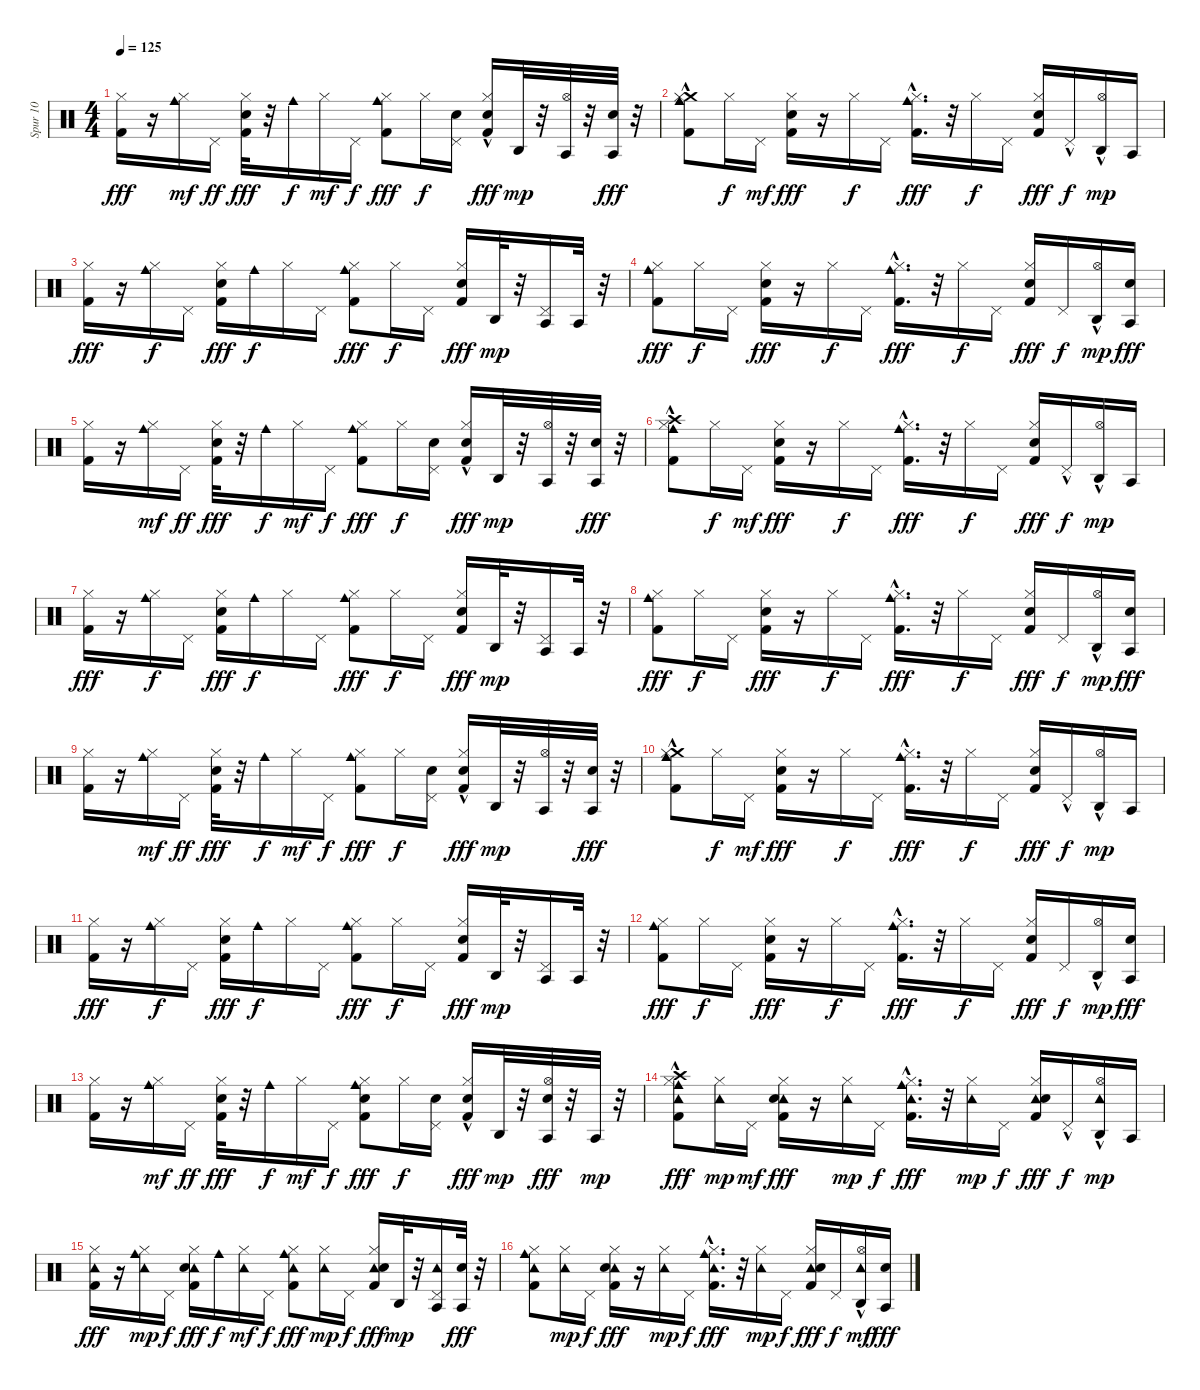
\track ("Spur 10" "Spur 10") {instrument percussion}
\staff {score}
\articulation defaults
\ts (4 4)
\tempo 125
\clef neutral
\ks c
("Kick (hit) 2" "Hi-Hat (closed)").16{dy fff} r.16 ("Cowbell medium (hit)" "Hi-Hat (closed)").16{dy mf} "Pedal Hi-Hat (hit)".16{dy ff} ("Electric Snare (hit)" "Kick (hit) 2" "Hi-Hat (closed)").32{dy fff} r.32 "Cowbell medium (hit)".16{dy f} "Hi-Hat (closed)".16{dy mf} "Pedal Hi-Hat (hit)".16{dy f} ("Cowbell medium (hit)" "Hi-Hat (closed)" "Kick (hit) 2").8{dy fff} "Hi-Hat (closed)".16{dy f} ("Pedal Hi-Hat (hit)" "Electric Snare (hit)").16 ("Hi-Hat (closed)" "Kick (hit) 2"{hac} "Electric Snare (hit)").16{dy fff} "Agogo high (hit)".32{dy mp} r.32 ("Agogo tow (hit)" "Hi-Hat (open)").32 r.32 ("Agogo tow (hit)" "Electric Snare (hit)").32{dy fff} r.32 |
("Cowbell medium (hit)" "Crash medium (hit)"{hac} "Hi-Hat (closed)" "Kick (hit) 2").8 "Hi-Hat (closed)".16{dy f} "Pedal Hi-Hat (hit)".16{dy mf} ("Electric Snare (hit)" "Kick (hit) 2" "Hi-Hat (closed)").16{dy fff} r.16 "Hi-Hat (closed)".16{dy f} "Pedal Hi-Hat (hit)".16 ("Cowbell medium (hit)"{hac} "Kick (hit) 2" "Hi-Hat (closed)").16{d dy fff} r.32 "Hi-Hat (closed)".16{dy f} "Pedal Hi-Hat (hit)".16 ("Kick (hit) 2" "Electric Snare (hit)" "Hi-Hat (closed)").16{dy fff} "Pedal Hi-Hat (hit)"{hac}.16{dy f} ("Agogo high (hit)" "Hi-Hat (open)"{hac}).16{dy mp} "Agogo tow (hit)".16 |
("Kick (hit) 2" "Hi-Hat (closed)").16{dy fff} r.16 ("Cowbell medium (hit)" "Hi-Hat (closed)").16{dy f} "Pedal Hi-Hat (hit)".16 ("Hi-Hat (closed)" "Kick (hit) 2" "Electric Snare (hit)").16{dy fff} "Cowbell medium (hit)".16{dy f} "Hi-Hat (closed)".16 "Pedal Hi-Hat (hit)".16 ("Cowbell medium (hit)" "Kick (hit) 2" "Hi-Hat (closed)").8{dy fff} "Hi-Hat (closed)".16{dy f} "Pedal Hi-Hat (hit)".16 ("Electric Snare (hit)" "Kick (hit) 2" "Hi-Hat (closed)").16{dy fff} "Agogo high (hit)".32{dy mp} r.32 ("Agogo tow (hit)" "Pedal Hi-Hat (hit)").16 "Agogo tow (hit)".32 r.32 |
("Cowbell medium (hit)" "Kick (hit) 2" "Hi-Hat (closed)").8{dy fff} "Hi-Hat (closed)".16{dy f} "Pedal Hi-Hat (hit)".16 ("Electric Snare (hit)" "Kick (hit) 2" "Hi-Hat (closed)").16{dy fff} r.16 "Hi-Hat (closed)".16{dy f} "Pedal Hi-Hat (hit)".16 ("Cowbell medium (hit)"{hac} "Hi-Hat (closed)" "Kick (hit) 2").16{d dy fff} r.32 "Hi-Hat (closed)".16{dy f} "Pedal Hi-Hat (hit)".16 ("Kick (hit) 2" "Electric Snare (hit)" "Hi-Hat (closed)").16{dy fff} "Pedal Hi-Hat (hit)".16{dy f} ("Agogo high (hit)" "Hi-Hat (open)"{hac}).16{dy mp} ("Agogo tow (hit)" "Electric Snare (hit)").16{dy fff} |
("Kick (hit) 2" "Hi-Hat (closed)").16 r.16 ("Cowbell medium (hit)" "Hi-Hat (closed)").16{dy mf} "Pedal Hi-Hat (hit)".16{dy ff} ("Electric Snare (hit)" "Kick (hit) 2" "Hi-Hat (closed)").32{dy fff} r.32 "Cowbell medium (hit)".16{dy f} "Hi-Hat (closed)".16{dy mf} "Pedal Hi-Hat (hit)".16{dy f} ("Cowbell medium (hit)" "Hi-Hat (closed)" "Kick (hit) 2").8{dy fff} "Hi-Hat (closed)".16{dy f} ("Pedal Hi-Hat (hit)" "Electric Snare (hit)").16 ("Hi-Hat (closed)" "Kick (hit) 2"{hac} "Electric Snare (hit)").16{dy fff} "Agogo high (hit)".32{dy mp} r.32 ("Agogo tow (hit)" "Hi-Hat (open)").32 r.32 ("Agogo tow (hit)" "Electric Snare (hit)").32{dy fff} r.32 |
("Cowbell medium (hit)" "Crash high (hit)"{hac} "Hi-Hat (closed)" "Kick (hit) 2").8 "Hi-Hat (closed)".16{dy f} "Pedal Hi-Hat (hit)".16{dy mf} ("Electric Snare (hit)" "Kick (hit) 2" "Hi-Hat (closed)").16{dy fff} r.16 "Hi-Hat (closed)".16{dy f} "Pedal Hi-Hat (hit)".16 ("Cowbell medium (hit)"{hac} "Kick (hit) 2" "Hi-Hat (closed)").16{d dy fff} r.32 "Hi-Hat (closed)".16{dy f} "Pedal Hi-Hat (hit)".16 ("Kick (hit) 2" "Electric Snare (hit)" "Hi-Hat (closed)").16{dy fff} "Pedal Hi-Hat (hit)"{hac}.16{dy f} ("Agogo high (hit)" "Hi-Hat (open)"{hac}).16{dy mp} "Agogo tow (hit)".16 |
("Kick (hit) 2" "Hi-Hat (closed)").16{dy fff} r.16 ("Cowbell medium (hit)" "Hi-Hat (closed)").16{dy f} "Pedal Hi-Hat (hit)".16 ("Hi-Hat (closed)" "Kick (hit) 2" "Electric Snare (hit)").16{dy fff} "Cowbell medium (hit)".16{dy f} "Hi-Hat (closed)".16 "Pedal Hi-Hat (hit)".16 ("Cowbell medium (hit)" "Kick (hit) 2" "Hi-Hat (closed)").8{dy fff} "Hi-Hat (closed)".16{dy f} "Pedal Hi-Hat (hit)".16 ("Electric Snare (hit)" "Kick (hit) 2" "Hi-Hat (closed)").16{dy fff} "Agogo high (hit)".32{dy mp} r.32 ("Agogo tow (hit)" "Pedal Hi-Hat (hit)").16 "Agogo tow (hit)".32 r.32 |
("Cowbell medium (hit)" "Kick (hit) 2" "Hi-Hat (closed)").8{dy fff} "Hi-Hat (closed)".16{dy f} "Pedal Hi-Hat (hit)".16 ("Electric Snare (hit)" "Kick (hit) 2" "Hi-Hat (closed)").16{dy fff} r.16 "Hi-Hat (closed)".16{dy f} "Pedal Hi-Hat (hit)".16 ("Cowbell medium (hit)"{hac} "Hi-Hat (closed)" "Kick (hit) 2").16{d dy fff} r.32 "Hi-Hat (closed)".16{dy f} "Pedal Hi-Hat (hit)".16 ("Kick (hit) 2" "Electric Snare (hit)" "Hi-Hat (closed)").16{dy fff} "Pedal Hi-Hat (hit)".16{dy f} ("Agogo high (hit)" "Hi-Hat (open)"{hac}).16{dy mp} ("Agogo tow (hit)" "Electric Snare (hit)").16{dy fff} |
("Kick (hit) 2" "Hi-Hat (closed)").16 r.16 ("Cowbell medium (hit)" "Hi-Hat (closed)").16{dy mf} "Pedal Hi-Hat (hit)".16{dy ff} ("Electric Snare (hit)" "Kick (hit) 2" "Hi-Hat (closed)").32{dy fff} r.32 "Cowbell medium (hit)".16{dy f} "Hi-Hat (closed)".16{dy mf} "Pedal Hi-Hat (hit)".16{dy f} ("Cowbell medium (hit)" "Hi-Hat (closed)" "Kick (hit) 2").8{dy fff} "Hi-Hat (closed)".16{dy f} ("Pedal Hi-Hat (hit)" "Electric Snare (hit)").16 ("Hi-Hat (closed)" "Kick (hit) 2"{hac} "Electric Snare (hit)").16{dy fff} "Agogo high (hit)".32{dy mp} r.32 ("Agogo tow (hit)" "Hi-Hat (open)").32 r.32 ("Agogo tow (hit)" "Electric Snare (hit)").32{dy fff} r.32 |
("Cowbell medium (hit)" "Crash medium (hit)"{hac} "Hi-Hat (closed)" "Kick (hit) 2").8 "Hi-Hat (closed)".16{dy f} "Pedal Hi-Hat (hit)".16{dy mf} ("Electric Snare (hit)" "Kick (hit) 2" "Hi-Hat (closed)").16{dy fff} r.16 "Hi-Hat (closed)".16{dy f} "Pedal Hi-Hat (hit)".16 ("Cowbell medium (hit)"{hac} "Kick (hit) 2" "Hi-Hat (closed)").16{d dy fff} r.32 "Hi-Hat (closed)".16{dy f} "Pedal Hi-Hat (hit)".16 ("Kick (hit) 2" "Electric Snare (hit)" "Hi-Hat (closed)").16{dy fff} "Pedal Hi-Hat (hit)"{hac}.16{dy f} ("Agogo high (hit)" "Hi-Hat (open)"{hac}).16{dy mp} "Agogo tow (hit)".16 |
("Kick (hit) 2" "Hi-Hat (closed)").16{dy fff} r.16 ("Cowbell medium (hit)" "Hi-Hat (closed)").16{dy f} "Pedal Hi-Hat (hit)".16 ("Hi-Hat (closed)" "Kick (hit) 2" "Electric Snare (hit)").16{dy fff} "Cowbell medium (hit)".16{dy f} "Hi-Hat (closed)".16 "Pedal Hi-Hat (hit)".16 ("Cowbell medium (hit)" "Kick (hit) 2" "Hi-Hat (closed)").8{dy fff} "Hi-Hat (closed)".16{dy f} "Pedal Hi-Hat (hit)".16 ("Electric Snare (hit)" "Kick (hit) 2" "Hi-Hat (closed)").16{dy fff} "Agogo high (hit)".32{dy mp} r.32 ("Agogo tow (hit)" "Pedal Hi-Hat (hit)").16 "Agogo tow (hit)".32 r.32 |
("Cowbell medium (hit)" "Kick (hit) 2" "Hi-Hat (closed)").8{dy fff} "Hi-Hat (closed)".16{dy f} "Pedal Hi-Hat (hit)".16 ("Electric Snare (hit)" "Kick (hit) 2" "Hi-Hat (closed)").16{dy fff} r.16 "Hi-Hat (closed)".16{dy f} "Pedal Hi-Hat (hit)".16 ("Cowbell medium (hit)"{hac} "Hi-Hat (closed)" "Kick (hit) 2").16{d dy fff} r.32 "Hi-Hat (closed)".16{dy f} "Pedal Hi-Hat (hit)".16 ("Kick (hit) 2" "Electric Snare (hit)" "Hi-Hat (closed)").16{dy fff} "Pedal Hi-Hat (hit)".16{dy f} ("Agogo high (hit)" "Hi-Hat (open)"{hac}).16{dy mp} ("Agogo tow (hit)" "Electric Snare (hit)").16{dy fff} |
("Kick (hit) 2" "Hi-Hat (closed)").16 r.16 ("Cowbell medium (hit)" "Hi-Hat (closed)").16{dy mf} "Pedal Hi-Hat (hit)".16{dy ff} ("Electric Snare (hit)" "Kick (hit) 2" "Hi-Hat (closed)").32{dy fff} r.32 "Cowbell medium (hit)".16{dy f} "Hi-Hat (closed)".16{dy mf} "Pedal Hi-Hat (hit)".16{dy f} ("Cowbell medium (hit)" "Electric Snare (hit)" "Hi-Hat (closed)" "Kick (hit) 2").8{dy fff} "Hi-Hat (closed)".16{dy f} ("Pedal Hi-Hat (hit)" "Electric Snare (hit)").16 ("Hi-Hat (closed)" "Kick (hit) 2"{hac} "Electric Snare (hit)").16{dy fff} "Agogo high (hit)".32{dy mp} r.32 ("Agogo tow (hit)" "Electric Snare (hit)" "Hi-Hat (open)").32{dy fff} r.32 "Agogo tow (hit)".32{dy mp} r.32 |
("Tambourine (hit)" "Cowbell medium (hit)" "Crash high (hit)"{hac} "Hi-Hat (closed)" "Kick (hit) 2").8{dy fff} ("Tambourine (hit)" "Hi-Hat (closed)").16{dy mp} "Pedal Hi-Hat (hit)".16{dy mf} ("Tambourine (hit)" "Electric Snare (hit)" "Kick (hit) 2" "Hi-Hat (closed)").16{dy fff} r.16 ("Tambourine (hit)" "Hi-Hat (closed)").16{dy mp} "Pedal Hi-Hat (hit)".16{dy f} ("Tambourine (hit)" "Cowbell medium (hit)"{hac} "Kick (hit) 2" "Hi-Hat (closed)").16{d dy fff} r.32 ("Tambourine (hit)" "Hi-Hat (closed)").16{dy mp} "Pedal Hi-Hat (hit)".16{dy f} ("Tambourine (hit)" "Kick (hit) 2" "Electric Snare (hit)" "Hi-Hat (closed)").16{dy fff} "Pedal Hi-Hat (hit)"{hac}.16{dy f} ("Agogo high (hit)" "Tambourine (hit)" "Hi-Hat (open)"{hac}).16{dy mp} "Agogo tow (hit)".16 |
("Tambourine (hit)" "Kick (hit) 2" "Hi-Hat (closed)").16{dy fff} r.16 ("Cowbell medium (hit)" "Tambourine (hit)" "Hi-Hat (closed)").16{dy mp} "Pedal Hi-Hat (hit)".16{dy f} ("Tambourine (hit)" "Hi-Hat (closed)" "Kick (hit) 2" "Electric Snare (hit)").16{dy fff} "Cowbell medium (hit)".16{dy f} ("Tambourine (hit)" "Hi-Hat (closed)").16{dy mf} "Pedal Hi-Hat (hit)".16{dy f} ("Cowbell medium (hit)" "Tambourine (hit)" "Kick (hit) 2" "Hi-Hat (closed)").8{dy fff} ("Tambourine (hit)" "Hi-Hat (closed)").16{dy mp} "Pedal Hi-Hat (hit)".16{dy f} ("Tambourine (hit)" "Electric Snare (hit)" "Kick (hit) 2" "Hi-Hat (closed)").16{dy fff} "Agogo high (hit)".32{dy mp} r.32 ("Agogo tow (hit)" "Tambourine (hit)" "Pedal Hi-Hat (hit)").16 ("Agogo tow (hit)" "Electric Snare (hit)").32{dy fff} r.32 |
("Cowbell medium (hit)" "Tambourine (hit)" "Kick (hit) 2" "Hi-Hat (closed)").8 ("Tambourine (hit)" "Hi-Hat (closed)").16{dy mp} "Pedal Hi-Hat (hit)".16{dy f} ("Tambourine (hit)" "Electric Snare (hit)" "Kick (hit) 2" "Hi-Hat (closed)").16{dy fff} r.16 ("Tambourine (hit)" "Hi-Hat (closed)").16{dy mp} "Pedal Hi-Hat (hit)".16{dy f} ("Cowbell medium (hit)"{hac} "Tambourine (hit)" "Hi-Hat (closed)" "Kick (hit) 2").16{d dy fff} r.32 ("Tambourine (hit)" "Hi-Hat (closed)").16{dy mp} "Pedal Hi-Hat (hit)".16{dy f} ("Tambourine (hit)" "Kick (hit) 2" "Electric Snare (hit)" "Hi-Hat (closed)").16{dy fff} "Pedal Hi-Hat (hit)".16{dy f} ("Agogo high (hit)" "Tambourine (hit)" "Hi-Hat (open)"{hac}).16{dy mf} ("Agogo tow (hit)" "Electric Snare (hit)").16{dy fff}
